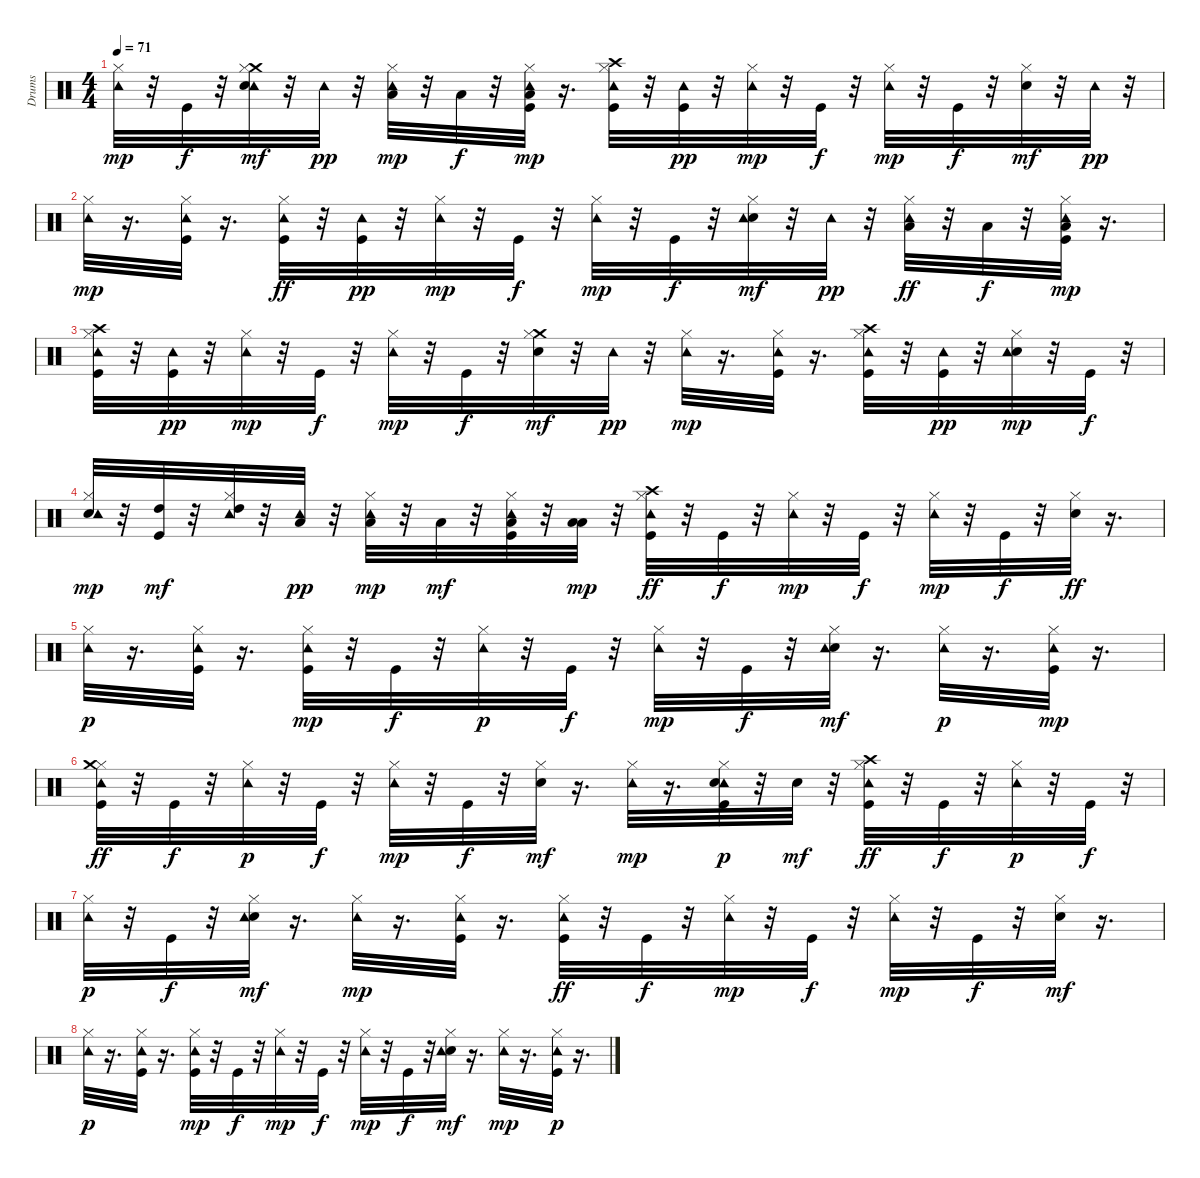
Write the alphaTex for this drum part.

\track ("Drums" "Drums") {instrument percussion}
\staff {score}
\articulation defaults
\ts (4 4)
\tempo 71
\clef neutral
\ks c
("Tambourine (hit)" "Hi-Hat (closed)").32{dy mp} r.32 "Kick (hit)".32{dy f} r.32 ("Crash medium (hit)" "Hi-Hat (closed)" "Tambourine (hit)" "Snare (hit) 2").32{dy mf} r.32 "Tambourine (hit)".32{dy pp} r.32 ("Hi-Hat (closed)" "Low Tom (hit)" "Tambourine (hit)").32{dy mp} r.32 "Low Tom (hit)".32{dy f} r.32 ("Kick (hit)" "Tambourine (hit)" "Low Floor Tom (hit)" "Hi-Hat (closed)").32{dy mp} r.16{d} ("Hi-Hat (closed)" "Crash high (hit)" "Kick (hit)" "Tambourine (hit)").32 r.32 ("Tambourine (hit)" "Kick (hit)").32{dy pp} r.32 ("Tambourine (hit)" "Hi-Hat (closed)").32{dy mp} r.32 "Kick (hit)".32{dy f} r.32 ("Tambourine (hit)" "Hi-Hat (closed)").32{dy mp} r.32 "Kick (hit)".32{dy f} r.32 ("Snare (hit) 2" "Hi-Hat (closed)").32{dy mf} r.32 "Tambourine (hit)".32{dy pp} r.32 |
("Hi-Hat (closed)" "Tambourine (hit)").32{dy mp} r.16{d} ("Tambourine (hit)" "Hi-Hat (closed)" "Kick (hit)").32 r.16{d} ("Hi-Hat (closed)" "Tambourine (hit)" "Kick (hit)").32{dy ff} r.32 ("Kick (hit)" "Tambourine (hit)").32{dy pp} r.32 ("Tambourine (hit)" "Hi-Hat (closed)").32{dy mp} r.32 "Kick (hit)".32{dy f} r.32 ("Hi-Hat (closed)" "Tambourine (hit)").32{dy mp} r.32 "Kick (hit)".32{dy f} r.32 ("Snare (hit) 2" "Hi-Hat (closed)" "Tambourine (hit)").32{dy mf} r.32 "Tambourine (hit)".32{dy pp} r.32 ("Tambourine (hit)" "Hi-Hat (closed)" "Low Tom (hit)").32{dy ff} r.32 "Low Tom (hit)".32{dy f} r.32 ("Hi-Hat (closed)" "Tambourine (hit)" "Low Floor Tom (hit)" "Kick (hit)").32{dy mp} r.16{d} |
("Hi-Hat (closed)" "Tambourine (hit)" "Kick (hit)" "Crash high (hit)").32 r.32 ("Tambourine (hit)" "Kick (hit)").32{dy pp} r.32 ("Tambourine (hit)" "Hi-Hat (closed)").32{dy mp} r.32 "Kick (hit)".32{dy f} r.32 ("Tambourine (hit)" "Hi-Hat (closed)").32{dy mp} r.32 "Kick (hit)".32{dy f} r.32 ("Crash medium (hit)" "Snare (hit) 2" "Hi-Hat (closed)").32{dy mf} r.32 "Tambourine (hit)".32{dy pp} r.32 ("Hi-Hat (closed)" "Tambourine (hit)").32{dy mp} r.16{d} ("Hi-Hat (closed)" "Kick (hit)" "Tambourine (hit)").32 r.16{d} ("Kick (hit)" "Hi-Hat (closed)" "Crash high (hit)" "Tambourine (hit)").32 r.32 ("Kick (hit)" "Tambourine (hit)").32{dy pp} r.32 ("Hi-Hat (closed)" "Snare (hit) 2" "Tambourine (hit)").32{dy mp} r.32 "Kick (hit)".32{dy f} r.32 |
("Snare (hit) 2" "Tambourine (hit)" "Hi-Hat (closed)").32{dy mp} r.32 ("High Tom (hit)" "Kick (hit)").32{dy mf} r.32 ("Hi-Hat (closed)" "High Tom (hit)" "Tambourine (hit)").32 r.32 ("Low Tom (hit)" "Tambourine (hit)").32{dy pp} r.32 ("Tambourine (hit)" "Low Tom (hit)" "Hi-Hat (closed)").32{dy mp} r.32 "Low Tom (hit)".32{dy mf} r.32 ("Tambourine (hit)" "Hi-Hat (closed)" "Low Floor Tom (hit)" "Kick (hit)").32 r.32 ("Low Tom (hit)" "Low Floor Tom (hit)").32{dy mp} r.32 ("Tambourine (hit)" "Hi-Hat (closed)" "Crash high (hit)" "Kick (hit)").32{dy ff} r.32 "Kick (hit)".32{dy f} r.32 ("Tambourine (hit)" "Hi-Hat (closed)").32{dy mp} r.32 "Kick (hit)".32{dy f} r.32 ("Tambourine (hit)" "Hi-Hat (closed)").32{dy mp} r.32 "Kick (hit)".32{dy f} r.32 ("Hi-Hat (closed)" "Snare (hit) 2").32{dy ff} r.16{d} |
("Hi-Hat (closed)" "Tambourine (hit)").32{dy p} r.16{d} ("Hi-Hat (closed)" "Tambourine (hit)" "Kick (hit)").32 r.16{d} ("Tambourine (hit)" "Kick (hit)" "Hi-Hat (closed)").32{dy mp} r.32 "Kick (hit)".32{dy f} r.32 ("Hi-Hat (closed)" "Tambourine (hit)").32{dy p} r.32 "Kick (hit)".32{dy f} r.32 ("Tambourine (hit)" "Hi-Hat (closed)").32{dy mp} r.32 "Kick (hit)".32{dy f} r.32 ("Snare (hit) 2" "Tambourine (hit)" "Hi-Hat (closed)").32{dy mf} r.16{d} ("Hi-Hat (closed)" "Tambourine (hit)").32{dy p} r.16{d} ("Tambourine (hit)" "Hi-Hat (closed)" "Kick (hit)").32{dy mp} r.16{d} |
("Tambourine (hit)" "Hi-Hat (closed)" "Crash medium (hit)" "Kick (hit)").32{dy ff} r.32 "Kick (hit)".32{dy f} r.32 ("Hi-Hat (closed)" "Tambourine (hit)").32{dy p} r.32 "Kick (hit)".32{dy f} r.32 ("Tambourine (hit)" "Hi-Hat (closed)").32{dy mp} r.32 "Kick (hit)".32{dy f} r.32 ("Snare (hit) 2" "Hi-Hat (closed)").32{dy mf} r.16{d} ("Tambourine (hit)" "Hi-Hat (closed)").32{dy mp} r.16{d} ("Hi-Hat (closed)" "Tambourine (hit)" "Snare (hit) 2" "Kick (hit)").32{dy p} r.32 "Snare (hit) 2".32{dy mf} r.32 ("Crash high (hit)" "Tambourine (hit)" "Hi-Hat (closed)" "Kick (hit)").32{dy ff} r.32 "Kick (hit)".32{dy f} r.32 ("Hi-Hat (closed)" "Tambourine (hit)").32{dy p} r.32 "Kick (hit)".32{dy f} r.32 |
("Hi-Hat (closed)" "Tambourine (hit)").32{dy p} r.32 "Kick (hit)".32{dy f} r.32 ("Hi-Hat (closed)" "Snare (hit) 2" "Tambourine (hit)").32{dy mf} r.16{d} ("Tambourine (hit)" "Hi-Hat (closed)").32{dy mp} r.16{d} ("Tambourine (hit)" "Hi-Hat (closed)" "Kick (hit)").32 r.16{d} ("Tambourine (hit)" "Hi-Hat (closed)" "Kick (hit)").32{dy ff} r.32 "Kick (hit)".32{dy f} r.32 ("Tambourine (hit)" "Hi-Hat (closed)").32{dy mp} r.32 "Kick (hit)".32{dy f} r.32 ("Tambourine (hit)" "Hi-Hat (closed)").32{dy mp} r.32 "Kick (hit)".32{dy f} r.32 ("Snare (hit) 2" "Hi-Hat (closed)").32{dy mf} r.16{d} |
("Hi-Hat (closed)" "Tambourine (hit)").32{dy p} r.16{d} ("Hi-Hat (closed)" "Kick (hit)" "Tambourine (hit)").32 r.16{d} ("Kick (hit)" "Hi-Hat (closed)" "Tambourine (hit)").32{dy mp} r.32 "Kick (hit)".32{dy f} r.32 ("Tambourine (hit)" "Hi-Hat (closed)").32{dy mp} r.32 "Kick (hit)".32{dy f} r.32 ("Tambourine (hit)" "Hi-Hat (closed)").32{dy mp} r.32 "Kick (hit)".32{dy f} r.32 ("Snare (hit) 2" "Hi-Hat (closed)" "Tambourine (hit)").32{dy mf} r.16{d} ("Tambourine (hit)" "Hi-Hat (closed)").32{dy mp} r.16{d} ("Hi-Hat (closed)" "Tambourine (hit)" "Kick (hit)").32{dy p} r.16{d}
